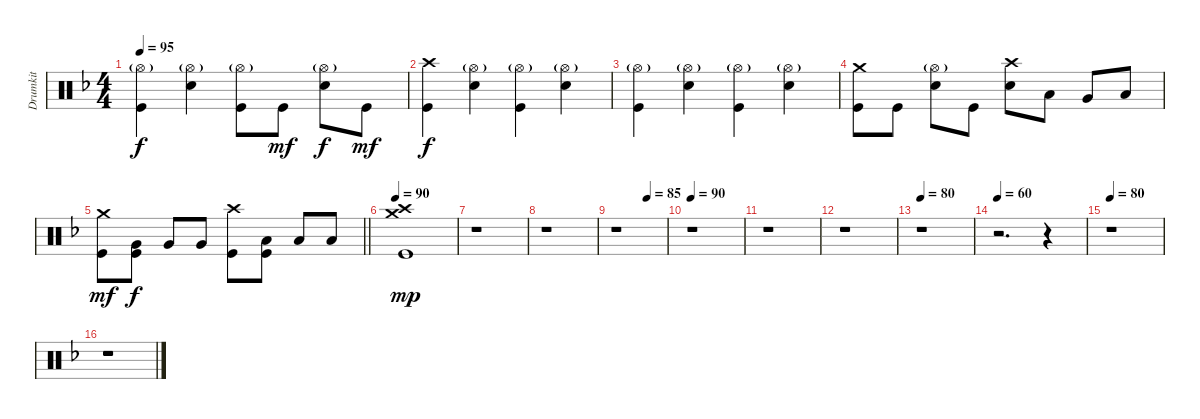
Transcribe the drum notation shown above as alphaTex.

\track ("Drumkit" "Drumkit") {instrument percussion}
\staff {score}
\articulation defaults
\ts (4 4)
\tempo 95
\clef neutral
\ks f
("Hi-Hat (open)"{g} "Kick (hit)").4{dy f} ("Hi-Hat (open)"{g} "Snare (hit) 2").4 ("Hi-Hat (open)"{g} "Kick (hit)").8 "Kick (hit)".8{dy mf} ("Hi-Hat (open)"{g} "Snare (hit) 2").8{dy f} "Kick (hit)".8{dy mf} |
("Crash high (hit)" "Kick (hit)").4{dy f} ("Hi-Hat (open)"{g} "Snare (hit) 2").4 ("Hi-Hat (open)"{g} "Kick (hit)").4 ("Hi-Hat (open)"{g} "Snare (hit) 2").4 |
("Hi-Hat (open)"{g} "Kick (hit)").4 ("Hi-Hat (open)"{g} "Snare (hit) 2").4 ("Hi-Hat (open)"{g} "Kick (hit)").4 ("Hi-Hat (open)"{g} "Snare (hit) 2").4 |
("Crash medium (hit)" "Kick (hit)").8 "Kick (hit)".8 ("Hi-Hat (open)"{g} "Snare (hit) 2").8 "Kick (hit)".8 ("Crash high (hit)" "Snare (hit) 2").8 "Low Tom (hit)".8 "Very Low Tom (hit)".8 "Low Floor Tom (hit)".8 |
\barLineRight lightlight
("Crash medium (hit)" "Kick (hit)").8{dy mf} ("Very Low Tom (hit)" "Kick (hit)").8{dy f} "Very Low Tom (hit)".8 "Very Low Tom (hit)".8 ("Crash high (hit)" "Kick (hit)").8 ("Low Floor Tom (hit)" "Kick (hit)").8 "Low Floor Tom (hit)".8 "Low Floor Tom (hit)".8 |
\tempo 90
("Crash medium (hit)" "Crash high (hit)" "Kick (hit)").1{dy mp} |
r.1 |
r.1 |
\tempo (85 0.625)
r.1 |
\tempo 90
r.1 |
r.1 |
r.1 |
\tempo 80
r.1 |
\tempo 60
r.2{d} r.4 |
\tempo 80
r.1 |
r.1
